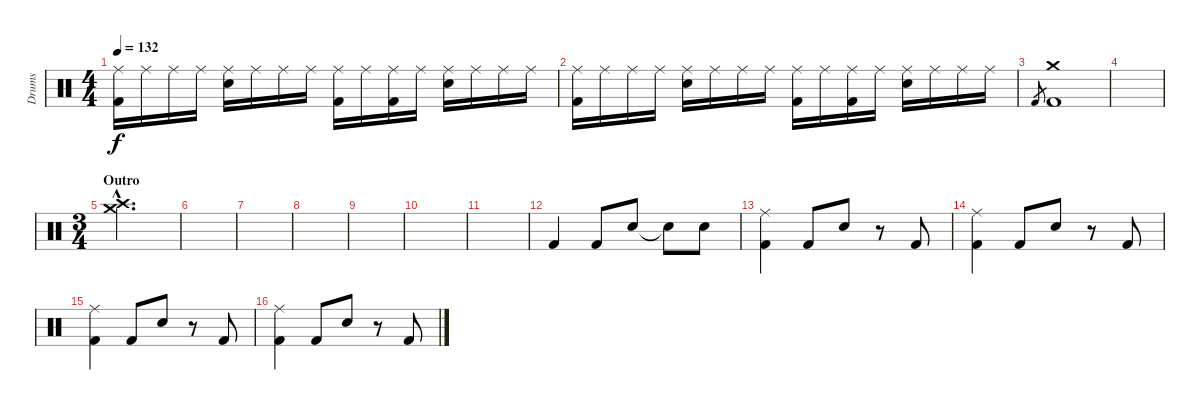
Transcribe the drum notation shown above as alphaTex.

\track ("Drums" "Drums") {instrument percussion}
\staff {score}
\articulation defaults
\ts (4 4)
\tempo 132
\clef neutral
\ks c
("Ride (middle)" "Kick (hit) 2").16{dy f} "Ride (middle)".16 "Ride (middle)".16 "Ride (middle)".16 ("Ride (middle)" "Electric Snare (hit)").16 "Ride (middle)".16 "Ride (middle)".16 "Ride (middle)".16 ("Ride (middle)" "Kick (hit) 2").16 "Ride (middle)".16 ("Ride (middle)" "Kick (hit) 2").16 "Ride (middle)".16 ("Ride (middle)" "Electric Snare (hit)").16 "Ride (middle)".16 "Ride (middle)".16 "Ride (middle)".16 |
("Ride (middle)" "Kick (hit) 2").16 "Ride (middle)".16 "Ride (middle)".16 "Ride (middle)".16 ("Ride (middle)" "Electric Snare (hit)").16 "Ride (middle)".16 "Ride (middle)".16 "Ride (middle)".16 ("Ride (middle)" "Kick (hit) 2").16 "Ride (middle)".16 ("Ride (middle)" "Kick (hit) 2").16 "Ride (middle)".16 ("Ride (middle)" "Electric Snare (hit)").16 "Ride (middle)".16 "Ride (middle)".16 "Ride (middle)".16 |
"Kick (hit) 2".8{gr} ("Crash medium (hit)" "Kick (hit) 2").1 |
|
\ts (3 4)
\section ("" "Outro")
("Crash medium (hit)"{hac} "Crash high (hit)"{hac}).2{d} |
|
|
|
|
|
|
"Kick (hit) 2".4 "Kick (hit) 2".8 "Electric Snare (hit)".8 "Snare (hit)"{t}.8 "Electric Snare (hit)".8 |
("Ride (middle)" "Kick (hit) 2").4 "Kick (hit) 2".8 "Electric Snare (hit)".8 r.8 "Kick (hit) 2".8 |
("Ride (middle)" "Kick (hit) 2").4 "Kick (hit) 2".8 "Electric Snare (hit)".8 r.8 "Kick (hit) 2".8 |
("Ride (middle)" "Kick (hit) 2").4 "Kick (hit) 2".8 "Electric Snare (hit)".8 r.8 "Kick (hit) 2".8 |
("Ride (middle)" "Kick (hit) 2").4 "Kick (hit) 2".8 "Electric Snare (hit)".8 r.8 "Kick (hit) 2".8
